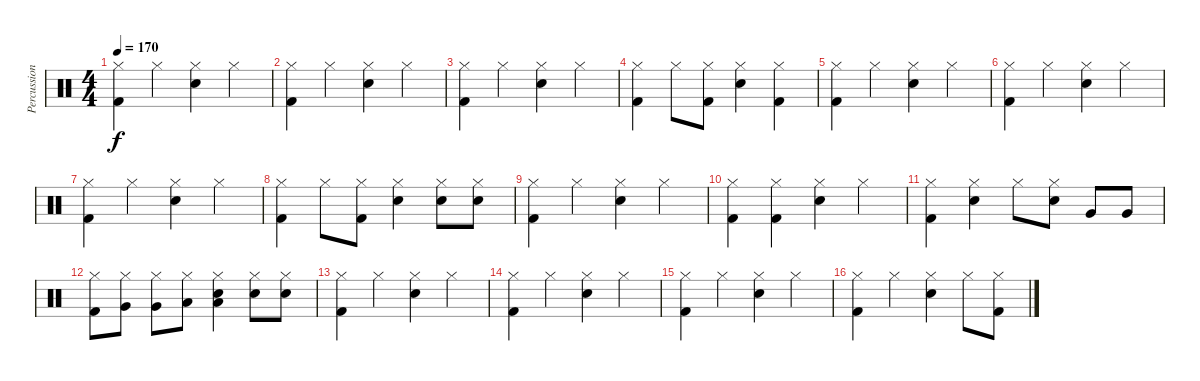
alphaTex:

\track ("Percussion" "Percussion") {instrument percussion}
\staff {score}
\articulation defaults
\ts (4 4)
\tempo 170
\clef neutral
\ks c
("Hi-Hat (closed)" "Kick (hit) 2").4{dy f} "Hi-Hat (closed)".4 ("Hi-Hat (closed)" "Snare (hit) 2").4 "Hi-Hat (closed)".4 |
("Hi-Hat (closed)" "Kick (hit) 2").4 "Hi-Hat (closed)".4 ("Hi-Hat (closed)" "Snare (hit) 2").4 "Hi-Hat (closed)".4 |
("Hi-Hat (closed)" "Kick (hit) 2").4 "Hi-Hat (closed)".4 ("Hi-Hat (closed)" "Snare (hit) 2").4 "Hi-Hat (closed)".4 |
("Hi-Hat (closed)" "Kick (hit) 2").4 "Hi-Hat (closed)".8 ("Hi-Hat (closed)" "Kick (hit) 2").8 ("Hi-Hat (closed)" "Snare (hit) 2").4 ("Hi-Hat (closed)" "Kick (hit) 2").4 |
("Hi-Hat (closed)" "Kick (hit) 2").4 "Hi-Hat (closed)".4 ("Hi-Hat (closed)" "Snare (hit) 2").4 "Hi-Hat (closed)".4 |
("Hi-Hat (closed)" "Kick (hit) 2").4 "Hi-Hat (closed)".4 ("Hi-Hat (closed)" "Snare (hit) 2").4 "Hi-Hat (closed)".4 |
("Hi-Hat (closed)" "Kick (hit) 2").4 "Hi-Hat (closed)".4 ("Hi-Hat (closed)" "Snare (hit) 2").4 "Hi-Hat (closed)".4 |
("Hi-Hat (closed)" "Kick (hit) 2").4 "Hi-Hat (closed)".8 ("Hi-Hat (closed)" "Kick (hit) 2").8 ("Hi-Hat (closed)" "Snare (hit) 2").4 ("Hi-Hat (closed)" "Snare (hit) 2").8 ("Hi-Hat (closed)" "Snare (hit) 2").8 |
("Hi-Hat (closed)" "Kick (hit) 2").4 "Hi-Hat (closed)".4 ("Hi-Hat (closed)" "Snare (hit) 2").4 "Hi-Hat (closed)".4 |
("Hi-Hat (closed)" "Kick (hit) 2").4 ("Hi-Hat (closed)" "Kick (hit) 2").4 ("Hi-Hat (closed)" "Snare (hit) 2").4 "Hi-Hat (closed)".4 |
("Hi-Hat (closed)" "Kick (hit) 2").4 ("Hi-Hat (closed)" "Snare (hit) 2").4 "Hi-Hat (closed)".8 ("Hi-Hat (closed)" "Snare (hit) 2").8 "Very Low Tom (hit)".8 "Very Low Tom (hit)".8 |
("Hi-Hat (closed)" "Kick (hit) 2").8 ("Hi-Hat (closed)" "Very Low Tom (hit)").8 ("Hi-Hat (closed)" "Very Low Tom (hit)").8 ("Hi-Hat (closed)" "Low Tom (hit)").8 ("Hi-Hat (closed)" "Low Floor Tom (hit)" "Snare (hit) 2").4 ("Hi-Hat (closed)" "Snare (hit) 2").8 ("Hi-Hat (closed)" "Snare (hit) 2").8 |
("Hi-Hat (closed)" "Kick (hit) 2").4 "Hi-Hat (closed)".4 ("Hi-Hat (closed)" "Snare (hit) 2").4 "Hi-Hat (closed)".4 |
("Hi-Hat (closed)" "Kick (hit) 2").4 "Hi-Hat (closed)".4 ("Hi-Hat (closed)" "Snare (hit) 2").4 "Hi-Hat (closed)".4 |
("Hi-Hat (closed)" "Kick (hit) 2").4 "Hi-Hat (closed)".4 ("Hi-Hat (closed)" "Snare (hit) 2").4 "Hi-Hat (closed)".4 |
("Hi-Hat (closed)" "Kick (hit) 2").4 "Hi-Hat (closed)".4 ("Hi-Hat (closed)" "Snare (hit) 2").4 "Hi-Hat (closed)".8 ("Hi-Hat (closed)" "Kick (hit) 2").8
